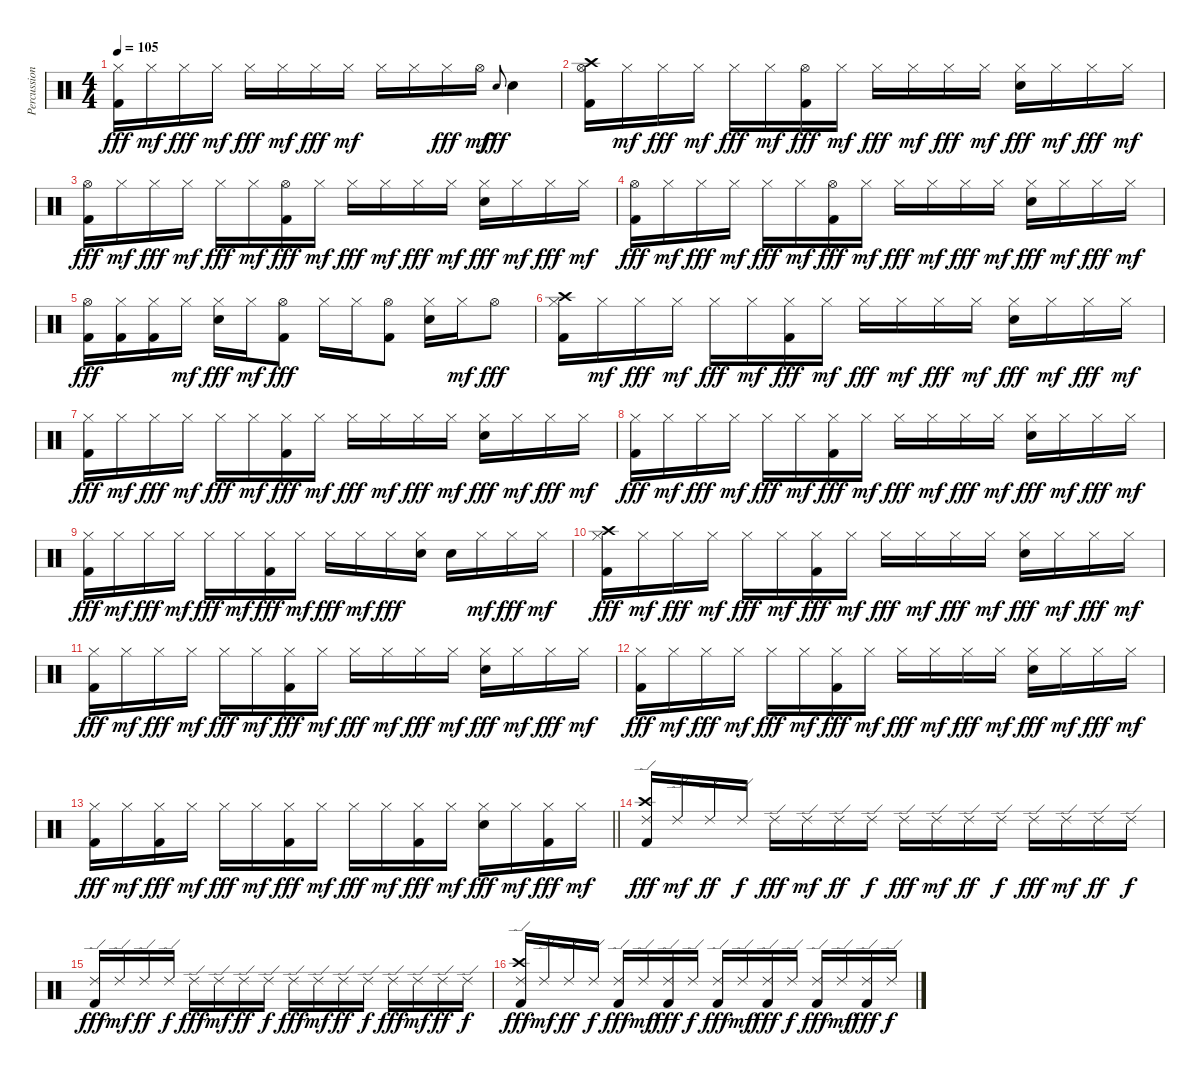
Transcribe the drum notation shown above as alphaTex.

\track ("Percussion" "Percussion") {instrument percussion}
\staff {score}
\articulation defaults
\ts (4 4)
\tempo 105
\clef neutral
\ks c
("Hi-Hat (closed)" "Kick (hit) 2").16{dy fff} "Hi-Hat (closed)".16{dy mf} "Hi-Hat (closed)".16{dy fff} "Hi-Hat (closed)".16{dy mf} "Hi-Hat (closed)".16{dy fff} "Hi-Hat (closed)".16{dy mf} "Hi-Hat (closed)".16{dy fff} "Hi-Hat (closed)".16{dy mf} "Hi-Hat (closed)".16 "Hi-Hat (closed)".16 "Hi-Hat (closed)".16{dy fff} "Hi-Hat (open)".16{dy mf} "Electric Snare (hit)".8{gr onbeat dy fff} "Electric Snare (hit)".4 |
("Crash high (hit)" "Hi-Hat (open)" "Kick (hit) 2").16 "Hi-Hat (closed)".16{dy mf} "Hi-Hat (closed)".16{dy fff} "Hi-Hat (closed)".16{dy mf} "Hi-Hat (closed)".16{dy fff} "Hi-Hat (closed)".16{dy mf} ("Hi-Hat (open)" "Kick (hit) 2").16{dy fff} "Hi-Hat (closed)".16{dy mf} "Hi-Hat (closed)".16{dy fff} "Hi-Hat (closed)".16{dy mf} "Hi-Hat (closed)".16{dy fff} "Hi-Hat (closed)".16{dy mf} ("Hi-Hat (closed)" "Electric Snare (hit)").16{dy fff} "Hi-Hat (closed)".16{dy mf} "Hi-Hat (closed)".16{dy fff} "Hi-Hat (closed)".16{dy mf} |
("Hi-Hat (open)" "Kick (hit) 2").16{dy fff} "Hi-Hat (closed)".16{dy mf} "Hi-Hat (closed)".16{dy fff} "Hi-Hat (closed)".16{dy mf} "Hi-Hat (closed)".16{dy fff} "Hi-Hat (closed)".16{dy mf} ("Hi-Hat (open)" "Kick (hit) 2").16{dy fff} "Hi-Hat (closed)".16{dy mf} "Hi-Hat (closed)".16{dy fff} "Hi-Hat (closed)".16{dy mf} "Hi-Hat (closed)".16{dy fff} "Hi-Hat (closed)".16{dy mf} ("Hi-Hat (closed)" "Electric Snare (hit)").16{dy fff} "Hi-Hat (closed)".16{dy mf} "Hi-Hat (closed)".16{dy fff} "Hi-Hat (closed)".16{dy mf} |
("Hi-Hat (open)" "Kick (hit) 2").16{dy fff} "Hi-Hat (closed)".16{dy mf} "Hi-Hat (closed)".16{dy fff} "Hi-Hat (closed)".16{dy mf} "Hi-Hat (closed)".16{dy fff} "Hi-Hat (closed)".16{dy mf} ("Hi-Hat (open)" "Kick (hit) 2").16{dy fff} "Hi-Hat (closed)".16{dy mf} "Hi-Hat (closed)".16{dy fff} "Hi-Hat (closed)".16{dy mf} "Hi-Hat (closed)".16{dy fff} "Hi-Hat (closed)".16{dy mf} ("Hi-Hat (closed)" "Electric Snare (hit)").16{dy fff} "Hi-Hat (closed)".16{dy mf} "Hi-Hat (closed)".16{dy fff} "Hi-Hat (closed)".16{dy mf} |
("Hi-Hat (open)" "Kick (hit) 2").16{dy fff} ("Hi-Hat (closed)" "Kick (hit) 2").16 ("Hi-Hat (closed)" "Kick (hit) 2").16 "Hi-Hat (closed)".16{dy mf} ("Hi-Hat (closed)" "Electric Snare (hit)").16{dy fff} "Hi-Hat (closed)".16{dy mf} ("Hi-Hat (open)" "Kick (hit) 2").8{dy fff} "Hi-Hat (closed)".16 "Hi-Hat (closed)".16 ("Hi-Hat (open)" "Kick (hit) 2").8 ("Hi-Hat (closed)" "Electric Snare (hit)").16 "Hi-Hat (closed)".16{dy mf} "Hi-Hat (open)".8{dy fff} |
("Crash high (hit)" "Hi-Hat (closed)" "Kick (hit) 2").16 "Hi-Hat (closed)".16{dy mf} "Hi-Hat (closed)".16{dy fff} "Hi-Hat (closed)".16{dy mf} "Hi-Hat (closed)".16{dy fff} "Hi-Hat (closed)".16{dy mf} ("Hi-Hat (closed)" "Kick (hit) 2").16{dy fff} "Hi-Hat (closed)".16{dy mf} "Hi-Hat (closed)".16{dy fff} "Hi-Hat (closed)".16{dy mf} "Hi-Hat (closed)".16{dy fff} "Hi-Hat (closed)".16{dy mf} ("Hi-Hat (closed)" "Electric Snare (hit)").16{dy fff} "Hi-Hat (closed)".16{dy mf} "Hi-Hat (closed)".16{dy fff} "Hi-Hat (closed)".16{dy mf} |
("Hi-Hat (closed)" "Kick (hit) 2").16{dy fff} "Hi-Hat (closed)".16{dy mf} "Hi-Hat (closed)".16{dy fff} "Hi-Hat (closed)".16{dy mf} "Hi-Hat (closed)".16{dy fff} "Hi-Hat (closed)".16{dy mf} ("Hi-Hat (closed)" "Kick (hit) 2").16{dy fff} "Hi-Hat (closed)".16{dy mf} "Hi-Hat (closed)".16{dy fff} "Hi-Hat (closed)".16{dy mf} "Hi-Hat (closed)".16{dy fff} "Hi-Hat (closed)".16{dy mf} ("Hi-Hat (closed)" "Electric Snare (hit)").16{dy fff} "Hi-Hat (closed)".16{dy mf} "Hi-Hat (closed)".16{dy fff} "Hi-Hat (closed)".16{dy mf} |
("Hi-Hat (closed)" "Kick (hit) 2").16{dy fff} "Hi-Hat (closed)".16{dy mf} "Hi-Hat (closed)".16{dy fff} "Hi-Hat (closed)".16{dy mf} "Hi-Hat (closed)".16{dy fff} "Hi-Hat (closed)".16{dy mf} ("Hi-Hat (closed)" "Kick (hit) 2").16{dy fff} "Hi-Hat (closed)".16{dy mf} "Hi-Hat (closed)".16{dy fff} "Hi-Hat (closed)".16{dy mf} "Hi-Hat (closed)".16{dy fff} "Hi-Hat (closed)".16{dy mf} ("Hi-Hat (closed)" "Electric Snare (hit)").16{dy fff} "Hi-Hat (closed)".16{dy mf} "Hi-Hat (closed)".16{dy fff} "Hi-Hat (closed)".16{dy mf} |
("Hi-Hat (closed)" "Kick (hit) 2").16{dy fff} "Hi-Hat (closed)".16{dy mf} "Hi-Hat (closed)".16{dy fff} "Hi-Hat (closed)".16{dy mf} "Hi-Hat (closed)".16{dy fff} "Hi-Hat (closed)".16{dy mf} ("Hi-Hat (closed)" "Kick (hit) 2").16{dy fff} "Hi-Hat (closed)".16{dy mf} "Hi-Hat (closed)".16{dy fff} "Hi-Hat (closed)".16{dy mf} "Hi-Hat (closed)".16{dy fff} ("Hi-Hat (closed)" "Electric Snare (hit)").16 "Electric Snare (hit)".16 "Hi-Hat (closed)".16{dy mf} "Hi-Hat (closed)".16{dy fff} "Hi-Hat (closed)".16{dy mf} |
("Crash high (hit)" "Hi-Hat (closed)" "Kick (hit) 2").16{dy fff} "Hi-Hat (closed)".16{dy mf} "Hi-Hat (closed)".16{dy fff} "Hi-Hat (closed)".16{dy mf} "Hi-Hat (closed)".16{dy fff} "Hi-Hat (closed)".16{dy mf} ("Hi-Hat (closed)" "Kick (hit) 2").16{dy fff} "Hi-Hat (closed)".16{dy mf} "Hi-Hat (closed)".16{dy fff} "Hi-Hat (closed)".16{dy mf} "Hi-Hat (closed)".16{dy fff} "Hi-Hat (closed)".16{dy mf} ("Hi-Hat (closed)" "Electric Snare (hit)").16{dy fff} "Hi-Hat (closed)".16{dy mf} "Hi-Hat (closed)".16{dy fff} "Hi-Hat (closed)".16{dy mf} |
("Hi-Hat (closed)" "Kick (hit) 2").16{dy fff} "Hi-Hat (closed)".16{dy mf} "Hi-Hat (closed)".16{dy fff} "Hi-Hat (closed)".16{dy mf} "Hi-Hat (closed)".16{dy fff} "Hi-Hat (closed)".16{dy mf} ("Hi-Hat (closed)" "Kick (hit) 2").16{dy fff} "Hi-Hat (closed)".16{dy mf} "Hi-Hat (closed)".16{dy fff} "Hi-Hat (closed)".16{dy mf} "Hi-Hat (closed)".16{dy fff} "Hi-Hat (closed)".16{dy mf} ("Hi-Hat (closed)" "Electric Snare (hit)").16{dy fff} "Hi-Hat (closed)".16{dy mf} "Hi-Hat (closed)".16{dy fff} "Hi-Hat (closed)".16{dy mf} |
("Hi-Hat (closed)" "Kick (hit) 2").16{dy fff} "Hi-Hat (closed)".16{dy mf} "Hi-Hat (closed)".16{dy fff} "Hi-Hat (closed)".16{dy mf} "Hi-Hat (closed)".16{dy fff} "Hi-Hat (closed)".16{dy mf} ("Hi-Hat (closed)" "Kick (hit) 2").16{dy fff} "Hi-Hat (closed)".16{dy mf} "Hi-Hat (closed)".16{dy fff} "Hi-Hat (closed)".16{dy mf} "Hi-Hat (closed)".16{dy fff} "Hi-Hat (closed)".16{dy mf} ("Hi-Hat (closed)" "Electric Snare (hit)").16{dy fff} "Hi-Hat (closed)".16{dy mf} "Hi-Hat (closed)".16{dy fff} "Hi-Hat (closed)".16{dy mf} |
\barLineRight lightlight
("Hi-Hat (closed)" "Kick (hit) 2").16{dy fff} "Hi-Hat (closed)".16{dy mf} ("Hi-Hat (closed)" "Kick (hit) 2").16{dy fff} "Hi-Hat (closed)".16{dy mf} "Hi-Hat (closed)".16{dy fff} "Hi-Hat (closed)".16{dy mf} ("Hi-Hat (closed)" "Kick (hit) 2").16{dy fff} "Hi-Hat (closed)".16{dy mf} "Hi-Hat (closed)".16{dy fff} "Hi-Hat (closed)".16{dy mf} ("Hi-Hat (closed)" "Kick (hit) 2").16{dy fff} "Hi-Hat (closed)".16{dy mf} ("Hi-Hat (closed)" "Electric Snare (hit)").16{dy fff} "Hi-Hat (closed)".16{dy mf} ("Hi-Hat (closed)" "Kick (hit) 2").16{dy fff} "Hi-Hat (closed)".16{dy mf} |
("Crash high (hit)" "Ride (edge) 2" "Kick (hit) 2").16{dy fff} "Ride (edge) 2".16{dy mf} "Ride (edge) 2".16{dy ff} "Ride (edge) 2".16{dy f} "Ride (edge) 2".16{dy fff} "Ride (edge) 2".16{dy mf} "Ride (edge) 2".16{dy ff} "Ride (edge) 2".16{dy f} "Ride (edge) 2".16{dy fff} "Ride (edge) 2".16{dy mf} "Ride (edge) 2".16{dy ff} "Ride (edge) 2".16{dy f} "Ride (edge) 2".16{dy fff} "Ride (edge) 2".16{dy mf} "Ride (edge) 2".16{dy ff} "Ride (edge) 2".16{dy f} |
("Ride (edge) 2" "Kick (hit) 2").16{dy fff} "Ride (edge) 2".16{dy mf} "Ride (edge) 2".16{dy ff} "Ride (edge) 2".16{dy f} "Ride (edge) 2".16{dy fff} "Ride (edge) 2".16{dy mf} "Ride (edge) 2".16{dy ff} "Ride (edge) 2".16{dy f} "Ride (edge) 2".16{dy fff} "Ride (edge) 2".16{dy mf} "Ride (edge) 2".16{dy ff} "Ride (edge) 2".16{dy f} "Ride (edge) 2".16{dy fff} "Ride (edge) 2".16{dy mf} "Ride (edge) 2".16{dy ff} "Ride (edge) 2".16{dy f} |
("Crash high (hit)" "Ride (edge) 2" "Kick (hit) 2").16{dy fff} "Ride (edge) 2".16{dy mf} "Ride (edge) 2".16{dy ff} "Ride (edge) 2".16{dy f} ("Ride (edge) 2" "Kick (hit) 2").16{dy fff} "Ride (edge) 2".16{dy mf} ("Ride (edge) 2" "Kick (hit) 2").16{dy fff} "Ride (edge) 2".16{dy f} ("Ride (edge) 2" "Kick (hit) 2").16{dy fff} "Ride (edge) 2".16{dy mf} ("Ride (edge) 2" "Kick (hit) 2").16{dy fff} "Ride (edge) 2".16{dy f} ("Ride (edge) 2" "Kick (hit) 2").16{dy fff} "Ride (edge) 2".16{dy mf} ("Ride (edge) 2" "Kick (hit) 2").16{dy fff} "Ride (edge) 2".16{dy f}
